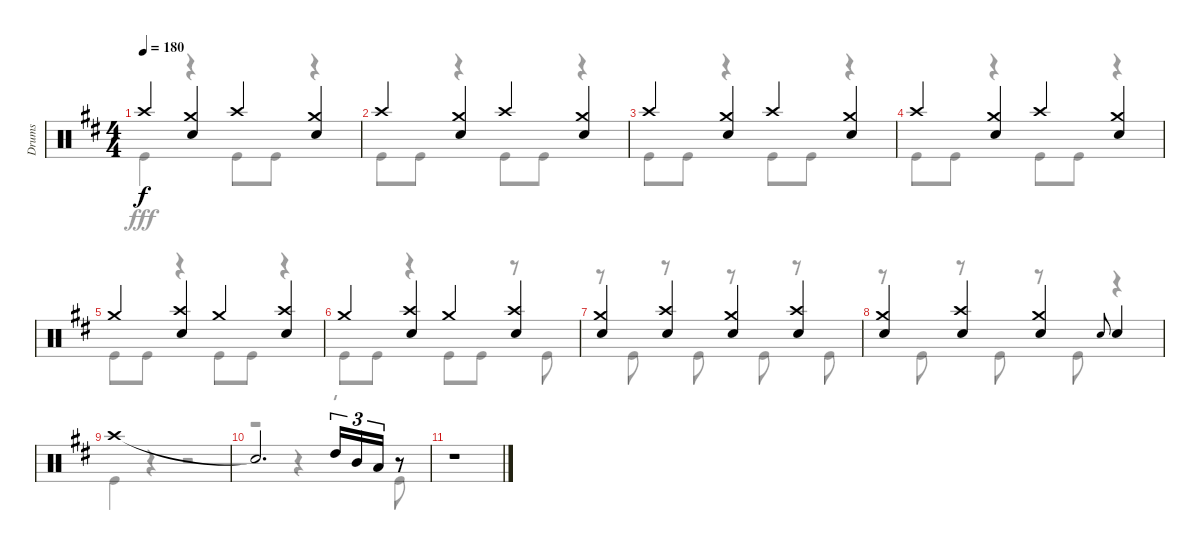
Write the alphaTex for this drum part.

\track ("Drums" "Drums") {instrument percussion}
\staff {score}
\articulation defaults
\voice
\ts (4 4)
\tempo 180
\clef neutral
\ks d "Crash high (hit)".4{dy f}
("Crash medium (hit)" "Snare (hit) 2").4 "Crash high (hit)".4 ("Crash medium (hit)" "Snare (hit) 2").4 |
"Crash high (hit)".4 ("Crash medium (hit)" "Snare (hit) 2").4 "Crash high (hit)".4 ("Crash medium (hit)" "Snare (hit) 2").4 |
"Crash high (hit)".4 ("Crash medium (hit)" "Snare (hit) 2").4 "Crash high (hit)".4 ("Crash medium (hit)" "Snare (hit) 2").4 |
"Crash high (hit)".4 ("Crash medium (hit)" "Snare (hit) 2").4 "Crash high (hit)".4 ("Crash medium (hit)" "Snare (hit) 2").4 |
"Crash medium (hit)".4 ("Crash high (hit)" "Snare (hit) 2").4 "Crash medium (hit)".4 ("Crash high (hit)" "Snare (hit) 2").4 |
"Crash medium (hit)".4 ("Crash high (hit)" "Snare (hit) 2").4 "Crash medium (hit)".4 ("Crash high (hit)" "Snare (hit) 2").4 |
("Crash medium (hit)" "Snare (hit) 2").4 ("Crash high (hit)" "Snare (hit) 2").4 ("Crash medium (hit)" "Snare (hit) 2").4 ("Crash high (hit)" "Snare (hit) 2").4 |
("Crash medium (hit)" "Snare (hit) 2").4 ("Crash high (hit)" "Snare (hit) 2").4 ("Crash medium (hit)" "Snare (hit) 2").4 "Snare (hit) 2".8{gr onbeat} "Snare (hit) 2".4 |
"Crash high (hit)".1 |
"Snare (hit)"{t}.2{d} "High Tom (hit)".16{tu (3 2)} "Mid Tom (hit)".16{tu (3 2)} "Low Tom (hit)".16{tu (3 2)} r.8 |
r.1
\voice
\clef neutral
\ottava regular
\simile none
\ks d "Kick (hit)".4{dy fff}
r.4 "Kick (hit)".8 "Kick (hit)".8 r.4 |
"Kick (hit)".8 "Kick (hit)".8 r.4 "Kick (hit)".8 "Kick (hit)".8 r.4 |
"Kick (hit)".8 "Kick (hit)".8 r.4 "Kick (hit)".8 "Kick (hit)".8 r.4 |
"Kick (hit)".8 "Kick (hit)".8 r.4 "Kick (hit)".8 "Kick (hit)".8 r.4 |
"Kick (hit)".8 "Kick (hit)".8 r.4 "Kick (hit)".8 "Kick (hit)".8 r.4 |
"Kick (hit)".8 "Kick (hit)".8 r.4 "Kick (hit)".8 "Kick (hit)".8 r.8 "Kick (hit)".8 |
r.8 "Kick (hit)".8 r.8 "Kick (hit)".8 r.8 "Kick (hit)".8 r.8 "Kick (hit)".8 |
r.8 "Kick (hit)".8 r.8 "Kick (hit)".8 r.8 "Kick (hit)".8 r.4 |
"Kick (hit)".4 r.4 r.2 |
r.2 r.4 r.8 "Kick (hit)".8 |
r.1
